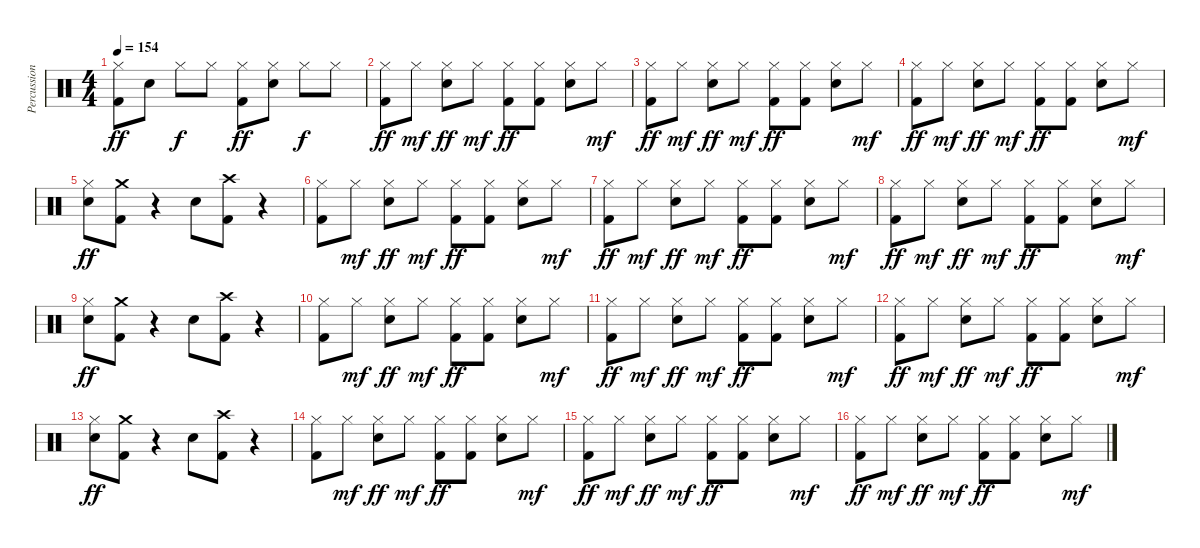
\track ("Percussions" "Percussion") {instrument percussion}
\staff {score}
\articulation defaults
\ts (4 4)
\tempo 154
\clef neutral
\ks c
("Hi-Hat (closed)" "Kick (hit) 2").8{dy ff volume 13} "Electric Snare (hit)".8 "Hi-Hat (closed)".8{dy f} "Hi-Hat (closed)".8 ("Hi-Hat (closed)" "Kick (hit) 2").8{dy ff} ("Hi-Hat (closed)" "Electric Snare (hit)").8 "Hi-Hat (closed)".8{dy f} "Hi-Hat (closed)".8 |
("Hi-Hat (closed)" "Kick (hit) 2").8{dy ff} "Hi-Hat (closed)".8{dy mf} ("Hi-Hat (closed)" "Electric Snare (hit)").8{dy ff} "Hi-Hat (closed)".8{dy mf} ("Hi-Hat (closed)" "Kick (hit) 2").8{dy ff} ("Hi-Hat (closed)" "Kick (hit) 2").8 ("Hi-Hat (closed)" "Electric Snare (hit)").8 "Hi-Hat (closed)".8{dy mf} |
("Hi-Hat (closed)" "Kick (hit) 2").8{dy ff} "Hi-Hat (closed)".8{dy mf} ("Hi-Hat (closed)" "Electric Snare (hit)").8{dy ff} "Hi-Hat (closed)".8{dy mf} ("Hi-Hat (closed)" "Kick (hit) 2").8{dy ff} ("Hi-Hat (closed)" "Kick (hit) 2").8 ("Hi-Hat (closed)" "Electric Snare (hit)").8 "Hi-Hat (closed)".8{dy mf} |
("Hi-Hat (closed)" "Kick (hit) 2").8{dy ff} "Hi-Hat (closed)".8{dy mf} ("Hi-Hat (closed)" "Electric Snare (hit)").8{dy ff} "Hi-Hat (closed)".8{dy mf} ("Hi-Hat (closed)" "Kick (hit) 2").8{dy ff} ("Hi-Hat (closed)" "Kick (hit) 2").8 ("Hi-Hat (closed)" "Electric Snare (hit)").8 "Hi-Hat (closed)".8{dy mf} |
("Hi-Hat (closed)" "Electric Snare (hit)").8{dy ff} ("Crash medium (hit)" "Kick (hit) 2").8 r.4 "Electric Snare (hit)".8 ("Crash high (hit)" "Kick (hit) 2").8 r.4 |
("Hi-Hat (closed)" "Kick (hit) 2").8 "Hi-Hat (closed)".8{dy mf} ("Hi-Hat (closed)" "Electric Snare (hit)").8{dy ff} "Hi-Hat (closed)".8{dy mf} ("Hi-Hat (closed)" "Kick (hit) 2").8{dy ff} ("Hi-Hat (closed)" "Kick (hit) 2").8 ("Hi-Hat (closed)" "Electric Snare (hit)").8 "Hi-Hat (closed)".8{dy mf} |
("Hi-Hat (closed)" "Kick (hit) 2").8{dy ff} "Hi-Hat (closed)".8{dy mf} ("Hi-Hat (closed)" "Electric Snare (hit)").8{dy ff} "Hi-Hat (closed)".8{dy mf} ("Hi-Hat (closed)" "Kick (hit) 2").8{dy ff} ("Hi-Hat (closed)" "Kick (hit) 2").8 ("Hi-Hat (closed)" "Electric Snare (hit)").8 "Hi-Hat (closed)".8{dy mf} |
("Hi-Hat (closed)" "Kick (hit) 2").8{dy ff} "Hi-Hat (closed)".8{dy mf} ("Hi-Hat (closed)" "Electric Snare (hit)").8{dy ff} "Hi-Hat (closed)".8{dy mf} ("Hi-Hat (closed)" "Kick (hit) 2").8{dy ff} ("Hi-Hat (closed)" "Kick (hit) 2").8 ("Hi-Hat (closed)" "Electric Snare (hit)").8 "Hi-Hat (closed)".8{dy mf} |
("Hi-Hat (closed)" "Electric Snare (hit)").8{dy ff} ("Crash medium (hit)" "Kick (hit) 2").8 r.4 "Electric Snare (hit)".8 ("Crash high (hit)" "Kick (hit) 2").8 r.4 |
("Hi-Hat (closed)" "Kick (hit) 2").8 "Hi-Hat (closed)".8{dy mf} ("Hi-Hat (closed)" "Electric Snare (hit)").8{dy ff} "Hi-Hat (closed)".8{dy mf} ("Hi-Hat (closed)" "Kick (hit) 2").8{dy ff} ("Hi-Hat (closed)" "Kick (hit) 2").8 ("Hi-Hat (closed)" "Electric Snare (hit)").8 "Hi-Hat (closed)".8{dy mf} |
("Hi-Hat (closed)" "Kick (hit) 2").8{dy ff} "Hi-Hat (closed)".8{dy mf} ("Hi-Hat (closed)" "Electric Snare (hit)").8{dy ff} "Hi-Hat (closed)".8{dy mf} ("Hi-Hat (closed)" "Kick (hit) 2").8{dy ff} ("Hi-Hat (closed)" "Kick (hit) 2").8 ("Hi-Hat (closed)" "Electric Snare (hit)").8 "Hi-Hat (closed)".8{dy mf} |
("Hi-Hat (closed)" "Kick (hit) 2").8{dy ff} "Hi-Hat (closed)".8{dy mf} ("Hi-Hat (closed)" "Electric Snare (hit)").8{dy ff} "Hi-Hat (closed)".8{dy mf} ("Hi-Hat (closed)" "Kick (hit) 2").8{dy ff} ("Hi-Hat (closed)" "Kick (hit) 2").8 ("Hi-Hat (closed)" "Electric Snare (hit)").8 "Hi-Hat (closed)".8{dy mf} |
("Hi-Hat (closed)" "Electric Snare (hit)").8{dy ff} ("Crash medium (hit)" "Kick (hit) 2").8 r.4 "Electric Snare (hit)".8 ("Crash high (hit)" "Kick (hit) 2").8 r.4 |
("Hi-Hat (closed)" "Kick (hit) 2").8 "Hi-Hat (closed)".8{dy mf} ("Hi-Hat (closed)" "Electric Snare (hit)").8{dy ff} "Hi-Hat (closed)".8{dy mf} ("Hi-Hat (closed)" "Kick (hit) 2").8{dy ff} ("Hi-Hat (closed)" "Kick (hit) 2").8 ("Hi-Hat (closed)" "Electric Snare (hit)").8 "Hi-Hat (closed)".8{dy mf} |
("Hi-Hat (closed)" "Kick (hit) 2").8{dy ff} "Hi-Hat (closed)".8{dy mf} ("Hi-Hat (closed)" "Electric Snare (hit)").8{dy ff} "Hi-Hat (closed)".8{dy mf} ("Hi-Hat (closed)" "Kick (hit) 2").8{dy ff} ("Hi-Hat (closed)" "Kick (hit) 2").8 ("Hi-Hat (closed)" "Electric Snare (hit)").8 "Hi-Hat (closed)".8{dy mf} |
("Hi-Hat (closed)" "Kick (hit) 2").8{dy ff} "Hi-Hat (closed)".8{dy mf} ("Hi-Hat (closed)" "Electric Snare (hit)").8{dy ff} "Hi-Hat (closed)".8{dy mf} ("Hi-Hat (closed)" "Kick (hit) 2").8{dy ff} ("Hi-Hat (closed)" "Kick (hit) 2").8 ("Hi-Hat (closed)" "Electric Snare (hit)").8 "Hi-Hat (closed)".8{dy mf}
